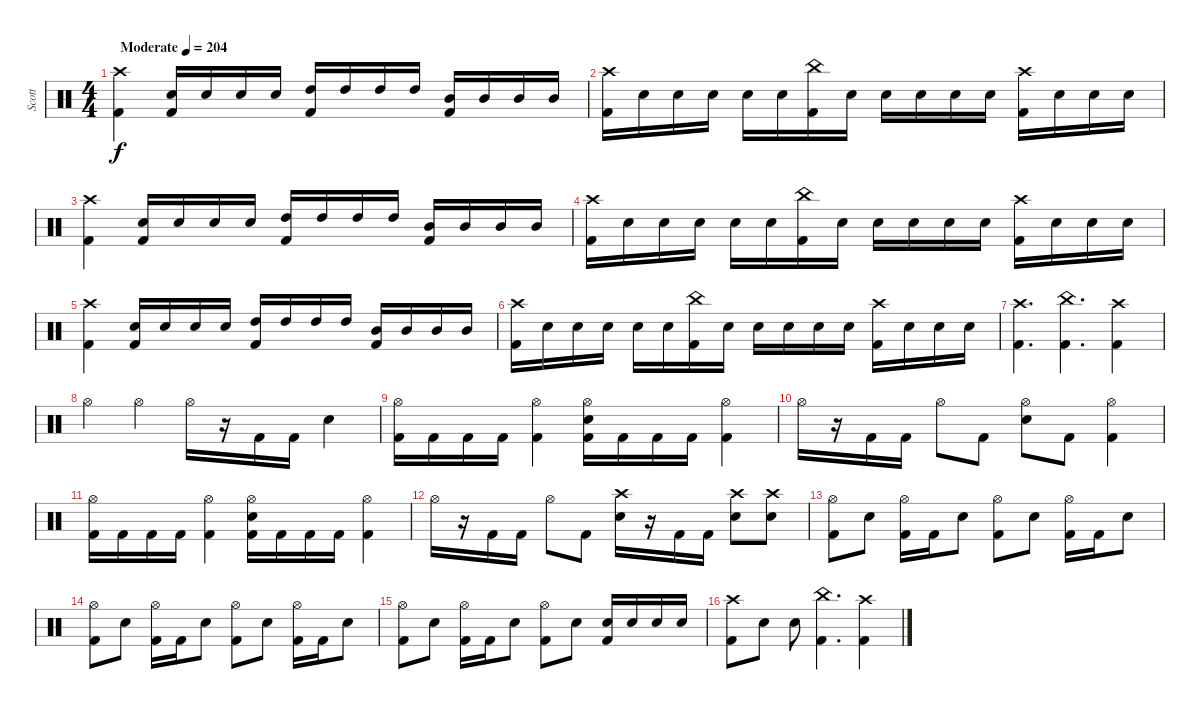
\track ("Scott" "Scott") {instrument percussion}
\staff {score}
\articulation defaults
\ts (4 4)
\tempo (204 "Moderate")
\clef neutral
\ks c
("Crash high (hit)" "Kick (hit) 2").4{dy f} ("Snare (hit) 2" "Kick (hit) 2").16 "Snare (hit) 2".16 "Snare (hit) 2".16 "Snare (hit) 2".16 ("High Tom (hit)" "Kick (hit) 2").16 "High Tom (hit)".16 "High Tom (hit)".16 "High Tom (hit)".16 ("Mid Tom (hit)" "Kick (hit) 2").16 "Mid Tom (hit)".16 "Mid Tom (hit)".16 "Mid Tom (hit)".16 |
("Crash high (hit)" "Kick (hit) 2").16 "Snare (hit) 2".16 "Snare (hit) 2".16 "Snare (hit) 2".16 "Snare (hit) 2".16 "Snare (hit) 2".16 ("China (hit)" "Kick (hit) 2").16 "Snare (hit) 2".16 "Snare (hit) 2".16 "Snare (hit) 2".16 "Snare (hit) 2".16 "Snare (hit) 2".16 ("Crash high (hit)" "Kick (hit) 2").16 "Snare (hit) 2".16 "Snare (hit) 2".16 "Snare (hit) 2".16 |
("Crash high (hit)" "Kick (hit) 2").4 ("Snare (hit) 2" "Kick (hit) 2").16 "Snare (hit) 2".16 "Snare (hit) 2".16 "Snare (hit) 2".16 ("High Tom (hit)" "Kick (hit) 2").16 "High Tom (hit)".16 "High Tom (hit)".16 "High Tom (hit)".16 ("Mid Tom (hit)" "Kick (hit) 2").16 "Mid Tom (hit)".16 "Mid Tom (hit)".16 "Mid Tom (hit)".16 |
("Crash high (hit)" "Kick (hit) 2").16 "Snare (hit) 2".16 "Snare (hit) 2".16 "Snare (hit) 2".16 "Snare (hit) 2".16 "Snare (hit) 2".16 ("China (hit)" "Kick (hit) 2").16 "Snare (hit) 2".16 "Snare (hit) 2".16 "Snare (hit) 2".16 "Snare (hit) 2".16 "Snare (hit) 2".16 ("Crash high (hit)" "Kick (hit) 2").16 "Snare (hit) 2".16 "Snare (hit) 2".16 "Snare (hit) 2".16 |
("Crash high (hit)" "Kick (hit) 2").4 ("Snare (hit) 2" "Kick (hit) 2").16 "Snare (hit) 2".16 "Snare (hit) 2".16 "Snare (hit) 2".16 ("High Tom (hit)" "Kick (hit) 2").16 "High Tom (hit)".16 "High Tom (hit)".16 "High Tom (hit)".16 ("Mid Tom (hit)" "Kick (hit) 2").16 "Mid Tom (hit)".16 "Mid Tom (hit)".16 "Mid Tom (hit)".16 |
("Crash high (hit)" "Kick (hit) 2").16 "Snare (hit) 2".16 "Snare (hit) 2".16 "Snare (hit) 2".16 "Snare (hit) 2".16 "Snare (hit) 2".16 ("China (hit)" "Kick (hit) 2").16 "Snare (hit) 2".16 "Snare (hit) 2".16 "Snare (hit) 2".16 "Snare (hit) 2".16 "Snare (hit) 2".16 ("Crash high (hit)" "Kick (hit) 2").16 "Snare (hit) 2".16 "Snare (hit) 2".16 "Snare (hit) 2".16 |
("Crash high (hit)" "Kick (hit) 2").4{d} ("China (hit)" "Kick (hit) 2").4{d} ("Crash high (hit)" "Kick (hit) 2").4 |
"Hi-Hat (open)".4 "Hi-Hat (open)".4 "Hi-Hat (open)".16 r.16 "Kick (hit) 2".16 "Kick (hit) 2".16 "Snare (hit) 2".4 |
("Hi-Hat (open)" "Kick (hit) 2").16 "Kick (hit) 2".16 "Kick (hit) 2".16 "Kick (hit) 2".16 ("Hi-Hat (open)" "Kick (hit) 2").4 ("Hi-Hat (open)" "Snare (hit) 2" "Kick (hit) 2").16 "Kick (hit) 2".16 "Kick (hit) 2".16 "Kick (hit) 2".16 ("Hi-Hat (open)" "Kick (hit) 2").4 |
"Hi-Hat (open)".16 r.16 "Kick (hit) 2".16 "Kick (hit) 2".16 "Hi-Hat (open)".8 "Kick (hit) 2".8 ("Hi-Hat (open)" "Snare (hit) 2").8 "Kick (hit) 2".8 ("Hi-Hat (open)" "Kick (hit) 2").4 |
("Hi-Hat (open)" "Kick (hit) 2").16 "Kick (hit) 2".16 "Kick (hit) 2".16 "Kick (hit) 2".16 ("Hi-Hat (open)" "Kick (hit) 2").4 ("Hi-Hat (open)" "Snare (hit) 2" "Kick (hit) 2").16 "Kick (hit) 2".16 "Kick (hit) 2".16 "Kick (hit) 2".16 ("Hi-Hat (open)" "Kick (hit) 2").4 |
"Hi-Hat (open)".16 r.16 "Kick (hit) 2".16 "Kick (hit) 2".16 "Hi-Hat (open)".8 "Kick (hit) 2".8 ("Crash high (hit)" "Snare (hit) 2").16 r.16 "Kick (hit) 2".16 "Kick (hit) 2".16 ("Crash high (hit)" "Snare (hit) 2").8 ("Crash high (hit)" "Snare (hit) 2").8 |
("Hi-Hat (open)" "Kick (hit) 2").8 "Snare (hit) 2".8 ("Hi-Hat (open)" "Kick (hit) 2").16 "Kick (hit) 2".16 "Snare (hit) 2".8 ("Hi-Hat (open)" "Kick (hit) 2").8 "Snare (hit) 2".8 ("Hi-Hat (open)" "Kick (hit) 2").16 "Kick (hit) 2".16 "Snare (hit) 2".8 |
("Hi-Hat (open)" "Kick (hit) 2").8 "Snare (hit) 2".8 ("Hi-Hat (open)" "Kick (hit) 2").16 "Kick (hit) 2".16 "Snare (hit) 2".8 ("Hi-Hat (open)" "Kick (hit) 2").8 "Snare (hit) 2".8 ("Hi-Hat (open)" "Kick (hit) 2").16 "Kick (hit) 2".16 "Snare (hit) 2".8 |
("Hi-Hat (open)" "Kick (hit) 2").8 "Snare (hit) 2".8 ("Hi-Hat (open)" "Kick (hit) 2").16 "Kick (hit) 2".16 "Snare (hit) 2".8 ("Hi-Hat (open)" "Kick (hit) 2").8 "Snare (hit) 2".8 ("Snare (hit) 2" "Kick (hit) 2").16 "Snare (hit) 2".16 "Snare (hit) 2".16 "Snare (hit) 2".16 |
("Crash high (hit)" "Kick (hit) 2").8 "Snare (hit) 2".8 "Snare (hit) 2".8 ("China (hit)" "Kick (hit) 2").4{d} ("Crash high (hit)" "Kick (hit) 2").4
